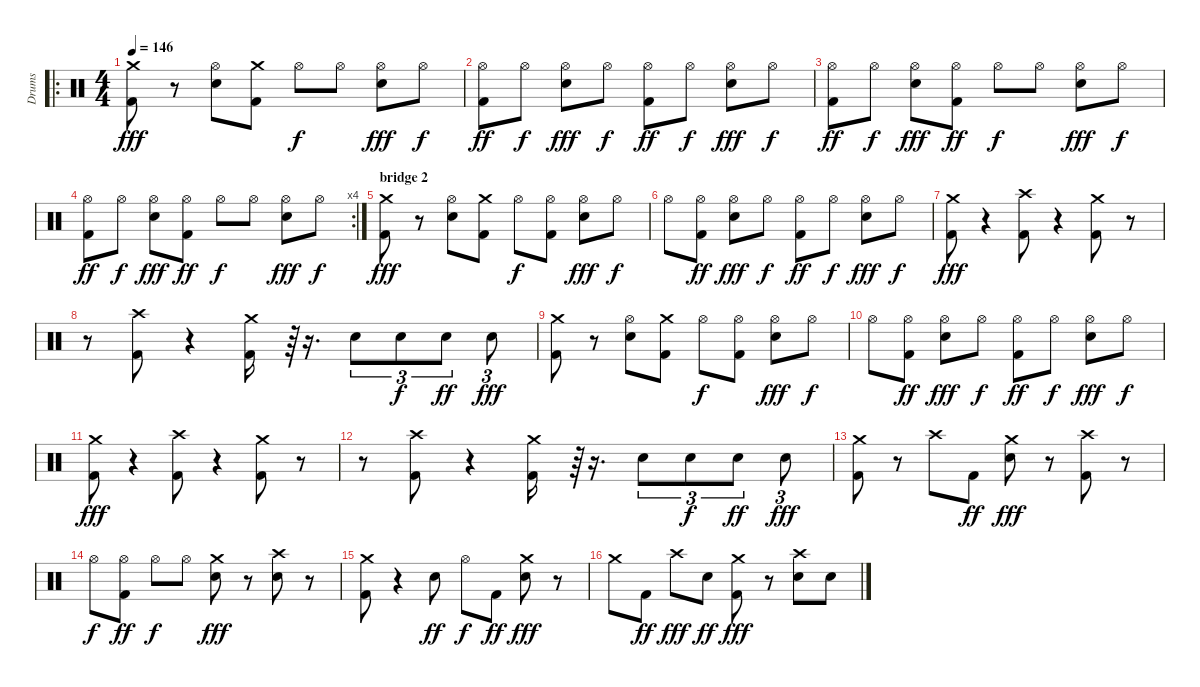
\track ("Drums" "Drums") {instrument percussion}
\staff {score}
\articulation defaults
\ro
\ts (4 4)
\tempo 146
\clef neutral
\ks c
("Kick (hit) 2" "Crash medium (hit)").8{dy fff} r.8 ("Snare (hit) 2" "Hi-Hat (open)").8 ("Kick (hit) 2" "Crash medium (hit)").8 "Hi-Hat (open)".8{dy f} "Hi-Hat (open)".8 ("Snare (hit) 2" "Hi-Hat (open)").8{dy fff} "Hi-Hat (open)".8{dy f} |
("Kick (hit) 2" "Hi-Hat (open)").8{dy ff} "Hi-Hat (open)".8{dy f} ("Snare (hit) 2" "Hi-Hat (open)").8{dy fff} "Hi-Hat (open)".8{dy f} ("Kick (hit) 2" "Hi-Hat (open)").8{dy ff} "Hi-Hat (open)".8{dy f} ("Snare (hit) 2" "Hi-Hat (open)").8{dy fff} "Hi-Hat (open)".8{dy f} |
("Kick (hit) 2" "Hi-Hat (open)").8{dy ff} "Hi-Hat (open)".8{dy f} ("Snare (hit) 2" "Hi-Hat (open)").8{dy fff} ("Kick (hit) 2" "Hi-Hat (open)").8{dy ff} "Hi-Hat (open)".8{dy f} "Hi-Hat (open)".8 ("Snare (hit) 2" "Hi-Hat (open)").8{dy fff} "Hi-Hat (open)".8{dy f} |
\rc 4
("Kick (hit) 2" "Hi-Hat (open)").8{dy ff} "Hi-Hat (open)".8{dy f} ("Snare (hit) 2" "Hi-Hat (open)").8{dy fff} ("Kick (hit) 2" "Hi-Hat (open)").8{dy ff} "Hi-Hat (open)".8{dy f} "Hi-Hat (open)".8 ("Snare (hit) 2" "Hi-Hat (open)").8{dy fff} "Hi-Hat (open)".8{dy f} |
\section ("" "bridge 2")
("Kick (hit) 2" "Crash medium (hit)").8{dy fff} r.8 ("Snare (hit) 2" "Hi-Hat (open)").8 ("Kick (hit) 2" "Crash medium (hit)").8 "Hi-Hat (open)".8{dy f} ("Kick (hit) 2" "Hi-Hat (open)").8 ("Snare (hit) 2" "Hi-Hat (open)").8{dy fff} "Hi-Hat (open)".8{dy f} |
"Hi-Hat (open)".8 ("Kick (hit) 2" "Hi-Hat (open)").8{dy ff} ("Snare (hit) 2" "Hi-Hat (open)").8{dy fff} "Hi-Hat (open)".8{dy f} ("Kick (hit) 2" "Hi-Hat (open)").8{dy ff} "Hi-Hat (open)".8{dy f} ("Snare (hit) 2" "Hi-Hat (open)").8{dy fff} "Hi-Hat (open)".8{dy f} |
("Kick (hit) 2" "Crash medium (hit)").8{dy fff} r.4 ("Kick (hit) 2" "Crash high (hit)").8 r.4 ("Kick (hit) 2" "Crash medium (hit)").8 r.8 |
r.8 ("Kick (hit) 2" "Crash high (hit)").8 r.4 ("Kick (hit) 2" "Crash medium (hit)").16 r.64{tu (3 2)} r.16{d} "Snare (hit) 2".8{tu (3 2)} "Snare (hit) 2".8{tu (3 2) dy f} "Snare (hit) 2".8{tu (3 2) dy ff} "Snare (hit) 2".8{tu (3 2) dy fff} |
("Kick (hit) 2" "Crash medium (hit)").8 r.8 ("Snare (hit) 2" "Hi-Hat (open)").8 ("Kick (hit) 2" "Crash medium (hit)").8 "Hi-Hat (open)".8{dy f} ("Kick (hit) 2" "Hi-Hat (open)").8 ("Snare (hit) 2" "Hi-Hat (open)").8{dy fff} "Hi-Hat (open)".8{dy f} |
"Hi-Hat (open)".8 ("Kick (hit) 2" "Hi-Hat (open)").8{dy ff} ("Snare (hit) 2" "Hi-Hat (open)").8{dy fff} "Hi-Hat (open)".8{dy f} ("Kick (hit) 2" "Hi-Hat (open)").8{dy ff} "Hi-Hat (open)".8{dy f} ("Snare (hit) 2" "Hi-Hat (open)").8{dy fff} "Hi-Hat (open)".8{dy f} |
("Kick (hit) 2" "Crash medium (hit)").8{dy fff} r.4 ("Kick (hit) 2" "Crash high (hit)").8 r.4 ("Kick (hit) 2" "Crash medium (hit)").8 r.8 |
r.8 ("Kick (hit) 2" "Crash high (hit)").8 r.4 ("Kick (hit) 2" "Crash medium (hit)").16 r.64{tu (3 2)} r.16{d} "Snare (hit) 2".8{tu (3 2)} "Snare (hit) 2".8{tu (3 2) dy f} "Snare (hit) 2".8{tu (3 2) dy ff} "Snare (hit) 2".8{tu (3 2) dy fff} |
("Kick (hit) 2" "Crash medium (hit)").8 r.8 "Crash high (hit)".8 "Kick (hit) 2".8{dy ff} ("Snare (hit) 2" "Crash medium (hit)").8{dy fff} r.8 ("Kick (hit) 2" "Crash high (hit)").8 r.8 |
"Hi-Hat (open)".8{dy f} ("Kick (hit) 2" "Hi-Hat (open)").8{dy ff} "Hi-Hat (open)".8{dy f} "Hi-Hat (open)".8 ("Snare (hit) 2" "Crash medium (hit)").8{dy fff} r.8 ("Snare (hit) 2" "Crash high (hit)").8 r.8 |
("Kick (hit) 2" "Crash medium (hit)").8 r.4 "Snare (hit) 2".8{dy ff} "Hi-Hat (open)".8{dy f} "Kick (hit) 2".8{dy ff} ("Snare (hit) 2" "Crash medium (hit)").8{dy fff} r.8 |
"Crash medium (hit)".8 "Kick (hit) 2".8{dy ff} "Crash high (hit)".8{dy fff} "Snare (hit) 2".8{dy ff} ("Kick (hit) 2" "Crash medium (hit)").8{dy fff} r.8 ("Snare (hit) 2" "Crash high (hit)").8 "Snare (hit) 2".8
